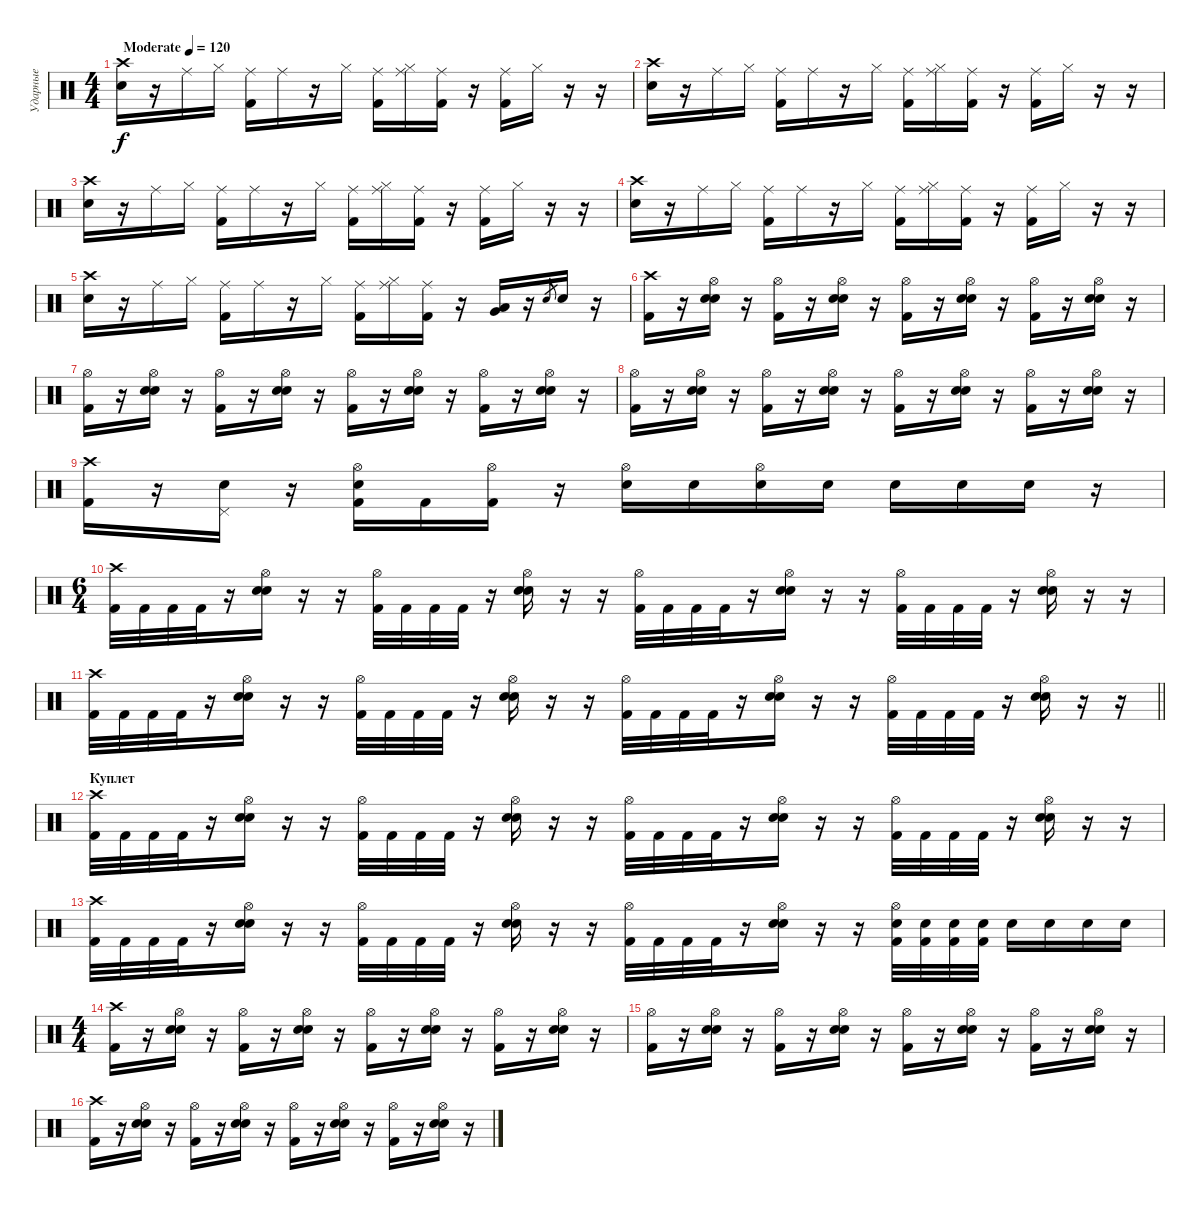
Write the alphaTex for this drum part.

\track ("Ударные" "Ударные") {instrument percussion}
\staff {score}
\articulation defaults
\ts (4 4)
\tempo (120 "Moderate")
\clef neutral
\ks c
("Snare (hit) 2" "Crash high (hit)").16{dy f} r.16 "Ride (middle)".16 "Hi-Hat (closed)".16 ("Kick (hit) 2" "Ride (middle)").16 "Ride (middle)".16 r.16 "Hi-Hat (closed)".16 ("Kick (hit) 2" "Ride (middle)").16 ("Ride (middle)" "Hi-Hat (closed)").16 ("Kick (hit) 2" "Ride (middle)").16 r.16 ("Kick (hit) 2" "Ride (middle)").16 "Hi-Hat (closed)".16 r.16 r.16 |
("Snare (hit) 2" "Crash high (hit)").16 r.16 "Ride (middle)".16 "Hi-Hat (closed)".16 ("Kick (hit) 2" "Ride (middle)").16 "Ride (middle)".16 r.16 "Hi-Hat (closed)".16 ("Kick (hit) 2" "Ride (middle)").16 ("Ride (middle)" "Hi-Hat (closed)").16 ("Kick (hit) 2" "Ride (middle)").16 r.16 ("Kick (hit) 2" "Ride (middle)").16 "Hi-Hat (closed)".16 r.16 r.16 |
("Snare (hit) 2" "Crash high (hit)").16 r.16 "Ride (middle)".16 "Hi-Hat (closed)".16 ("Kick (hit) 2" "Ride (middle)").16 "Ride (middle)".16 r.16 "Hi-Hat (closed)".16 ("Kick (hit) 2" "Ride (middle)").16 ("Ride (middle)" "Hi-Hat (closed)").16 ("Kick (hit) 2" "Ride (middle)").16 r.16 ("Kick (hit) 2" "Ride (middle)").16 "Hi-Hat (closed)".16 r.16 r.16 |
("Snare (hit) 2" "Crash high (hit)").16 r.16 "Ride (middle)".16 "Hi-Hat (closed)".16 ("Kick (hit) 2" "Ride (middle)").16 "Ride (middle)".16 r.16 "Hi-Hat (closed)".16 ("Kick (hit) 2" "Ride (middle)").16 ("Ride (middle)" "Hi-Hat (closed)").16 ("Kick (hit) 2" "Ride (middle)").16 r.16 ("Kick (hit) 2" "Ride (middle)").16 "Hi-Hat (closed)".16 r.16 r.16 |
("Snare (hit) 2" "Crash high (hit)").16 r.16 "Ride (middle)".16 "Hi-Hat (closed)".16 ("Kick (hit) 2" "Ride (middle)").16 "Ride (middle)".16 r.16 "Hi-Hat (closed)".16 ("Kick (hit) 2" "Ride (middle)").16 ("Ride (middle)" "Hi-Hat (closed)").16 ("Kick (hit) 2" "Ride (middle)").16 r.16 ("Very Low Tom (hit)" "Low Floor Tom (hit)").16 r.16 "Snare (hit) 2".8{gr} "Snare (hit) 2".16 r.16 |
("Kick (hit) 2" "Crash high (hit)").16 r.16 ("Snare (hit) 2" "Electric Snare (hit)" "Hi-Hat (open)").16 r.16 ("Kick (hit) 2" "Hi-Hat (open)").16 r.16 ("Snare (hit) 2" "Electric Snare (hit)" "Hi-Hat (open)").16 r.16 ("Kick (hit) 2" "Hi-Hat (open)").16 r.16 ("Snare (hit) 2" "Electric Snare (hit)" "Hi-Hat (open)").16 r.16 ("Kick (hit) 2" "Hi-Hat (open)").16 r.16 ("Snare (hit) 2" "Electric Snare (hit)" "Hi-Hat (open)").16 r.16 |
("Kick (hit) 2" "Hi-Hat (open)").16 r.16 ("Snare (hit) 2" "Electric Snare (hit)" "Hi-Hat (open)").16 r.16 ("Kick (hit) 2" "Hi-Hat (open)").16 r.16 ("Snare (hit) 2" "Electric Snare (hit)" "Hi-Hat (open)").16 r.16 ("Kick (hit) 2" "Hi-Hat (open)").16 r.16 ("Snare (hit) 2" "Electric Snare (hit)" "Hi-Hat (open)").16 r.16 ("Kick (hit) 2" "Hi-Hat (open)").16 r.16 ("Snare (hit) 2" "Electric Snare (hit)" "Hi-Hat (open)").16 r.16 |
("Kick (hit) 2" "Hi-Hat (open)").16 r.16 ("Snare (hit) 2" "Electric Snare (hit)" "Hi-Hat (open)").16 r.16 ("Kick (hit) 2" "Hi-Hat (open)").16 r.16 ("Snare (hit) 2" "Electric Snare (hit)" "Hi-Hat (open)").16 r.16 ("Kick (hit) 2" "Hi-Hat (open)").16 r.16 ("Snare (hit) 2" "Electric Snare (hit)" "Hi-Hat (open)").16 r.16 ("Kick (hit) 2" "Hi-Hat (open)").16 r.16 ("Snare (hit) 2" "Electric Snare (hit)" "Hi-Hat (open)").16 r.16 |
("Crash high (hit)" "Kick (hit) 2").16 r.16 ("Pedal Hi-Hat (hit)" "Electric Snare (hit)").16 r.16 ("Hi-Hat (open)" "Kick (hit) 2" "Snare (hit) 2").16 "Kick (hit) 2".16 ("Hi-Hat (open)" "Kick (hit) 2").16 r.16 ("Hi-Hat (open)" "Snare (hit) 2").16 "Snare (hit) 2".16 ("Hi-Hat (open)" "Snare (hit) 2").16 "Electric Snare (hit)".16 "Electric Snare (hit)".16 "Electric Snare (hit)".16 "Electric Snare (hit)".16 r.16 |
\ts (6 4)
("Kick (hit) 2" "Crash high (hit)").32 "Kick (hit) 2".32 "Kick (hit) 2".32 "Kick (hit) 2".32 r.16 ("Snare (hit) 2" "Electric Snare (hit)" "Hi-Hat (open)").16 r.16 r.16 ("Kick (hit) 2" "Hi-Hat (open)").32 "Kick (hit) 2".32 "Kick (hit) 2".32 "Kick (hit) 2".32 r.16 ("Electric Snare (hit)" "Snare (hit) 2" "Hi-Hat (open)").16 r.16 r.16 ("Kick (hit) 2" "Hi-Hat (open)").32 "Kick (hit) 2".32 "Kick (hit) 2".32 "Kick (hit) 2".32 r.16 ("Electric Snare (hit)" "Snare (hit) 2" "Hi-Hat (open)").16 r.16 r.16 ("Kick (hit) 2" "Hi-Hat (open)").32 "Kick (hit) 2".32 "Kick (hit) 2".32 "Kick (hit) 2".32 r.16 ("Electric Snare (hit)" "Snare (hit) 2" "Hi-Hat (open)").16 r.16 r.16 |
\barLineRight lightlight
("Kick (hit) 2" "Crash high (hit)").32 "Kick (hit) 2".32 "Kick (hit) 2".32 "Kick (hit) 2".32 r.16 ("Snare (hit) 2" "Electric Snare (hit)" "Hi-Hat (open)").16 r.16 r.16 ("Kick (hit) 2" "Hi-Hat (open)").32 "Kick (hit) 2".32 "Kick (hit) 2".32 "Kick (hit) 2".32 r.16 ("Electric Snare (hit)" "Snare (hit) 2" "Hi-Hat (open)").16 r.16 r.16 ("Kick (hit) 2" "Hi-Hat (open)").32 "Kick (hit) 2".32 "Kick (hit) 2".32 "Kick (hit) 2".32 r.16 ("Electric Snare (hit)" "Snare (hit) 2" "Hi-Hat (open)").16 r.16 r.16 ("Kick (hit) 2" "Hi-Hat (open)").32 "Kick (hit) 2".32 "Kick (hit) 2".32 "Kick (hit) 2".32 r.16 ("Electric Snare (hit)" "Snare (hit) 2" "Hi-Hat (open)").16 r.16 r.16 |
\section ("" "Куплет")
("Kick (hit) 2" "Crash high (hit)").32 "Kick (hit) 2".32 "Kick (hit) 2".32 "Kick (hit) 2".32 r.16 ("Snare (hit) 2" "Electric Snare (hit)" "Hi-Hat (open)").16 r.16 r.16 ("Kick (hit) 2" "Hi-Hat (open)").32 "Kick (hit) 2".32 "Kick (hit) 2".32 "Kick (hit) 2".32 r.16 ("Electric Snare (hit)" "Snare (hit) 2" "Hi-Hat (open)").16 r.16 r.16 ("Kick (hit) 2" "Hi-Hat (open)").32 "Kick (hit) 2".32 "Kick (hit) 2".32 "Kick (hit) 2".32 r.16 ("Electric Snare (hit)" "Snare (hit) 2" "Hi-Hat (open)").16 r.16 r.16 ("Kick (hit) 2" "Hi-Hat (open)").32 "Kick (hit) 2".32 "Kick (hit) 2".32 "Kick (hit) 2".32 r.16 ("Electric Snare (hit)" "Snare (hit) 2" "Hi-Hat (open)").16 r.16 r.16 |
("Kick (hit) 2" "Crash high (hit)").32 "Kick (hit) 2".32 "Kick (hit) 2".32 "Kick (hit) 2".32 r.16 ("Snare (hit) 2" "Electric Snare (hit)" "Hi-Hat (open)").16 r.16 r.16 ("Kick (hit) 2" "Hi-Hat (open)").32 "Kick (hit) 2".32 "Kick (hit) 2".32 "Kick (hit) 2".32 r.16 ("Electric Snare (hit)" "Snare (hit) 2" "Hi-Hat (open)").16 r.16 r.16 ("Kick (hit) 2" "Hi-Hat (open)").32 "Kick (hit) 2".32 "Kick (hit) 2".32 "Kick (hit) 2".32 r.16 ("Electric Snare (hit)" "Snare (hit) 2" "Hi-Hat (open)").16 r.16 r.16 ("Kick (hit) 2" "Electric Snare (hit)" "Hi-Hat (open)").32 ("Kick (hit) 2" "Electric Snare (hit)").32 ("Kick (hit) 2" "Electric Snare (hit)").32 ("Kick (hit) 2" "Electric Snare (hit)").32 "Electric Snare (hit)".16 "Electric Snare (hit)".16 "Electric Snare (hit)".16 "Electric Snare (hit)".16 |
\ts (4 4)
("Kick (hit) 2" "Crash high (hit)").16 r.16 ("Snare (hit) 2" "Electric Snare (hit)" "Hi-Hat (open)").16 r.16 ("Kick (hit) 2" "Hi-Hat (open)").16 r.16 ("Snare (hit) 2" "Electric Snare (hit)" "Hi-Hat (open)").16 r.16 ("Kick (hit) 2" "Hi-Hat (open)").16 r.16 ("Snare (hit) 2" "Electric Snare (hit)" "Hi-Hat (open)").16 r.16 ("Kick (hit) 2" "Hi-Hat (open)").16 r.16 ("Snare (hit) 2" "Electric Snare (hit)" "Hi-Hat (open)").16 r.16 |
("Kick (hit) 2" "Hi-Hat (open)").16 r.16 ("Snare (hit) 2" "Electric Snare (hit)" "Hi-Hat (open)").16 r.16 ("Kick (hit) 2" "Hi-Hat (open)").16 r.16 ("Snare (hit) 2" "Electric Snare (hit)" "Hi-Hat (open)").16 r.16 ("Kick (hit) 2" "Hi-Hat (open)").16 r.16 ("Snare (hit) 2" "Electric Snare (hit)" "Hi-Hat (open)").16 r.16 ("Kick (hit) 2" "Hi-Hat (open)").16 r.16 ("Snare (hit) 2" "Electric Snare (hit)" "Hi-Hat (open)").16 r.16 |
("Kick (hit) 2" "Crash high (hit)").16 r.16 ("Snare (hit) 2" "Electric Snare (hit)" "Hi-Hat (open)").16 r.16 ("Kick (hit) 2" "Hi-Hat (open)").16 r.16 ("Snare (hit) 2" "Electric Snare (hit)" "Hi-Hat (open)").16 r.16 ("Kick (hit) 2" "Hi-Hat (open)").16 r.16 ("Snare (hit) 2" "Electric Snare (hit)" "Hi-Hat (open)").16 r.16 ("Kick (hit) 2" "Hi-Hat (open)").16 r.16 ("Snare (hit) 2" "Electric Snare (hit)" "Hi-Hat (open)").16 r.16
